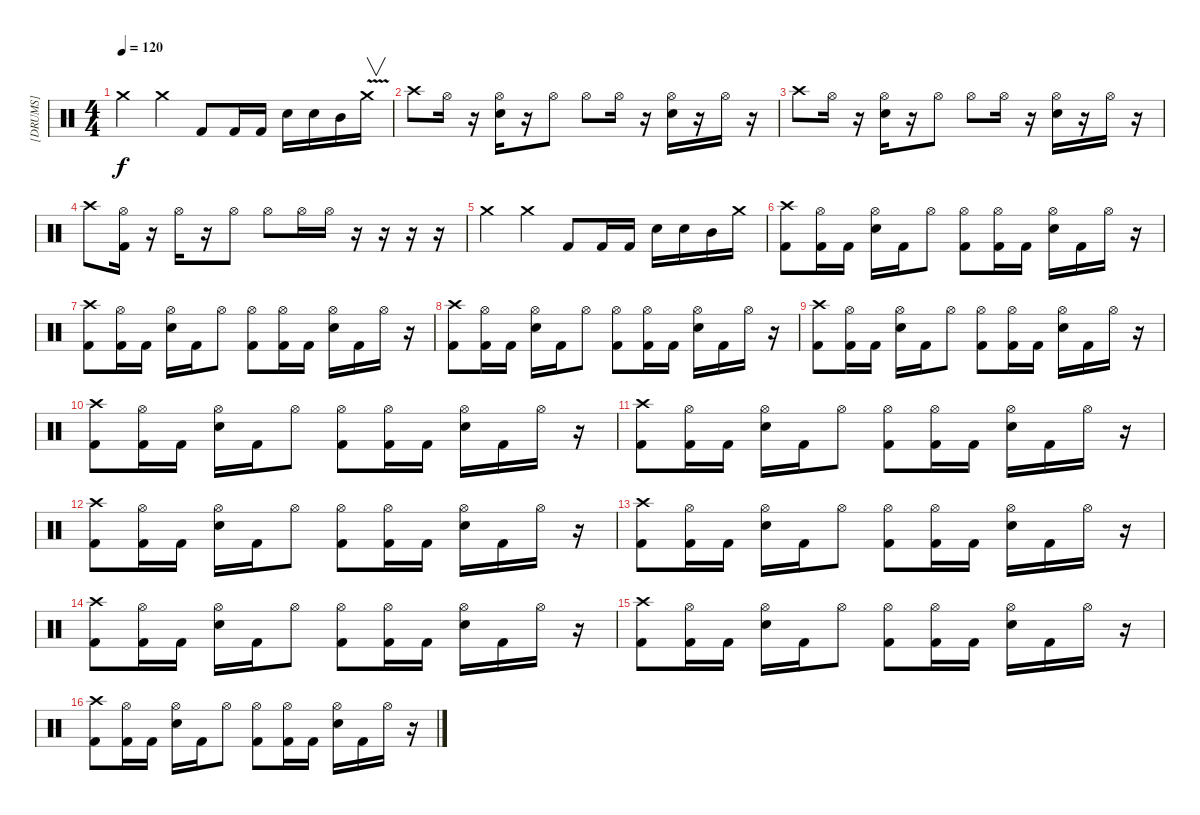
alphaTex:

\track ("[DRUMS]" "[DRUMS]") {instrument percussion}
\staff {score}
\articulation defaults
\ts (4 4)
\tempo 120
\clef neutral
\ks c "Crash medium (hit)".4{dy f} "Crash medium (hit)".4 "Kick (hit) 2".8 "Kick (hit) 2".16 "Kick (hit) 2".16 "Electric Snare (hit)".16 "Electric Snare (hit)".16 "Mid Tom (hit)".16 "Crash medium (hit)"{v}.16{v}
|
"Crash high (hit)".8 "Hi-Hat (open)".16 r.16 ("Hi-Hat (open)" "Electric Snare (hit)").16 r.16 "Hi-Hat (open)".8 "Hi-Hat (open)".8 "Hi-Hat (open)".16 r.16 ("Hi-Hat (open)" "Electric Snare (hit)").16 r.16 "Hi-Hat (open)".16 r.16 |
"Crash high (hit)".8 "Hi-Hat (open)".16 r.16 ("Hi-Hat (open)" "Electric Snare (hit)").16 r.16 "Hi-Hat (open)".8 "Hi-Hat (open)".8 "Hi-Hat (open)".16 r.16 ("Hi-Hat (open)" "Electric Snare (hit)").16 r.16 "Hi-Hat (open)".16 r.16 |
"Crash high (hit)".8 ("Hi-Hat (open)" "Kick (hit) 2").16 r.16 "Hi-Hat (open)".16 r.16 "Hi-Hat (open)".8 "Hi-Hat (open)".8 "Hi-Hat (open)".16 "Hi-Hat (open)".16 r.16 r.16 r.16 r.16 |
"Crash medium (hit)".4 "Crash medium (hit)".4 "Kick (hit) 2".8 "Kick (hit) 2".16 "Kick (hit) 2".16 "Electric Snare (hit)".16 "Electric Snare (hit)".16 "Mid Tom (hit)".16 "Crash medium (hit)".16 |
("Crash high (hit)" "Kick (hit) 2").8 ("Hi-Hat (open)" "Kick (hit) 2").16 "Kick (hit) 2".16 ("Hi-Hat (open)" "Electric Snare (hit)").16 "Kick (hit) 2".16 "Hi-Hat (open)".8 ("Hi-Hat (open)" "Kick (hit) 2").8 ("Hi-Hat (open)" "Kick (hit) 2").16 "Kick (hit) 2".16 ("Hi-Hat (open)" "Electric Snare (hit)").16 "Kick (hit) 2".16 "Hi-Hat (open)".16 r.16 |
("Crash high (hit)" "Kick (hit) 2").8 ("Hi-Hat (open)" "Kick (hit) 2").16 "Kick (hit) 2".16 ("Hi-Hat (open)" "Electric Snare (hit)").16 "Kick (hit) 2".16 "Hi-Hat (open)".8 ("Hi-Hat (open)" "Kick (hit) 2").8 ("Hi-Hat (open)" "Kick (hit) 2").16 "Kick (hit) 2".16 ("Hi-Hat (open)" "Electric Snare (hit)").16 "Kick (hit) 2".16 "Hi-Hat (open)".16 r.16 |
("Crash high (hit)" "Kick (hit) 2").8 ("Hi-Hat (open)" "Kick (hit) 2").16 "Kick (hit) 2".16 ("Hi-Hat (open)" "Electric Snare (hit)").16 "Kick (hit) 2".16 "Hi-Hat (open)".8 ("Hi-Hat (open)" "Kick (hit) 2").8 ("Hi-Hat (open)" "Kick (hit) 2").16 "Kick (hit) 2".16 ("Hi-Hat (open)" "Electric Snare (hit)").16 "Kick (hit) 2".16 "Hi-Hat (open)".16 r.16 |
("Crash high (hit)" "Kick (hit) 2").8 ("Hi-Hat (open)" "Kick (hit) 2").16 "Kick (hit) 2".16 ("Hi-Hat (open)" "Electric Snare (hit)").16 "Kick (hit) 2".16 "Hi-Hat (open)".8 ("Hi-Hat (open)" "Kick (hit) 2").8 ("Hi-Hat (open)" "Kick (hit) 2").16 "Kick (hit) 2".16 ("Hi-Hat (open)" "Electric Snare (hit)").16 "Kick (hit) 2".16 "Hi-Hat (open)".16 r.16 |
("Crash high (hit)" "Kick (hit) 2").8 ("Hi-Hat (open)" "Kick (hit) 2").16 "Kick (hit) 2".16 ("Hi-Hat (open)" "Electric Snare (hit)").16 "Kick (hit) 2".16 "Hi-Hat (open)".8 ("Hi-Hat (open)" "Kick (hit) 2").8 ("Hi-Hat (open)" "Kick (hit) 2").16 "Kick (hit) 2".16 ("Hi-Hat (open)" "Electric Snare (hit)").16 "Kick (hit) 2".16 "Hi-Hat (open)".16 r.16 |
("Crash high (hit)" "Kick (hit) 2").8 ("Hi-Hat (open)" "Kick (hit) 2").16 "Kick (hit) 2".16 ("Hi-Hat (open)" "Electric Snare (hit)").16 "Kick (hit) 2".16 "Hi-Hat (open)".8 ("Hi-Hat (open)" "Kick (hit) 2").8 ("Hi-Hat (open)" "Kick (hit) 2").16 "Kick (hit) 2".16 ("Hi-Hat (open)" "Electric Snare (hit)").16 "Kick (hit) 2".16 "Hi-Hat (open)".16 r.16 |
("Crash high (hit)" "Kick (hit) 2").8 ("Hi-Hat (open)" "Kick (hit) 2").16 "Kick (hit) 2".16 ("Hi-Hat (open)" "Electric Snare (hit)").16 "Kick (hit) 2".16 "Hi-Hat (open)".8 ("Hi-Hat (open)" "Kick (hit) 2").8 ("Hi-Hat (open)" "Kick (hit) 2").16 "Kick (hit) 2".16 ("Hi-Hat (open)" "Electric Snare (hit)").16 "Kick (hit) 2".16 "Hi-Hat (open)".16 r.16 |
("Crash high (hit)" "Kick (hit) 2").8 ("Hi-Hat (open)" "Kick (hit) 2").16 "Kick (hit) 2".16 ("Hi-Hat (open)" "Electric Snare (hit)").16 "Kick (hit) 2".16 "Hi-Hat (open)".8 ("Hi-Hat (open)" "Kick (hit) 2").8 ("Hi-Hat (open)" "Kick (hit) 2").16 "Kick (hit) 2".16 ("Hi-Hat (open)" "Electric Snare (hit)").16 "Kick (hit) 2".16 "Hi-Hat (open)".16 r.16 |
("Crash high (hit)" "Kick (hit) 2").8 ("Hi-Hat (open)" "Kick (hit) 2").16 "Kick (hit) 2".16 ("Hi-Hat (open)" "Electric Snare (hit)").16 "Kick (hit) 2".16 "Hi-Hat (open)".8 ("Hi-Hat (open)" "Kick (hit) 2").8 ("Hi-Hat (open)" "Kick (hit) 2").16 "Kick (hit) 2".16 ("Hi-Hat (open)" "Electric Snare (hit)").16 "Kick (hit) 2".16 "Hi-Hat (open)".16 r.16 |
("Crash high (hit)" "Kick (hit) 2").8 ("Hi-Hat (open)" "Kick (hit) 2").16 "Kick (hit) 2".16 ("Hi-Hat (open)" "Electric Snare (hit)").16 "Kick (hit) 2".16 "Hi-Hat (open)".8 ("Hi-Hat (open)" "Kick (hit) 2").8 ("Hi-Hat (open)" "Kick (hit) 2").16 "Kick (hit) 2".16 ("Hi-Hat (open)" "Electric Snare (hit)").16 "Kick (hit) 2".16 "Hi-Hat (open)".16 r.16 |
("Crash high (hit)" "Kick (hit) 2").8 ("Hi-Hat (open)" "Kick (hit) 2").16 "Kick (hit) 2".16 ("Hi-Hat (open)" "Electric Snare (hit)").16 "Kick (hit) 2".16 "Hi-Hat (open)".8 ("Hi-Hat (open)" "Kick (hit) 2").8 ("Hi-Hat (open)" "Kick (hit) 2").16 "Kick (hit) 2".16 ("Hi-Hat (open)" "Electric Snare (hit)").16 "Kick (hit) 2".16 "Hi-Hat (open)".16 r.16
